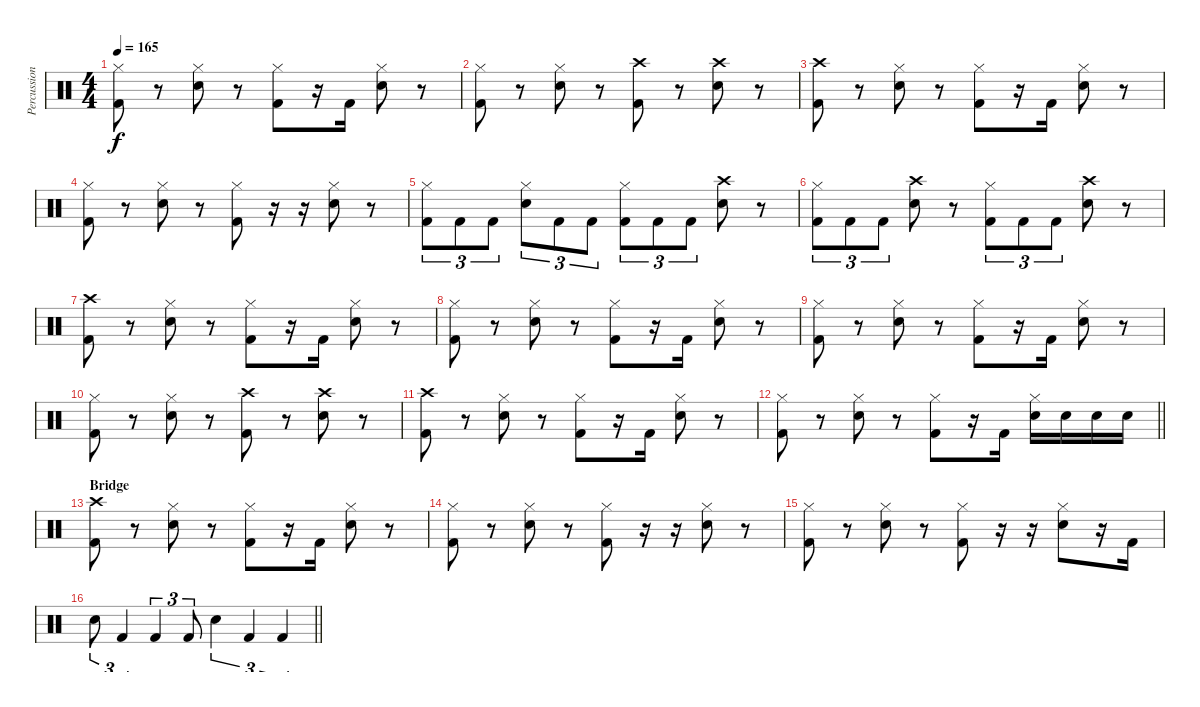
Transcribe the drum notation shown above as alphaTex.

\track ("Percussion" "Percussion") {instrument percussion}
\staff {score}
\articulation defaults
\ts (4 4)
\tempo 165
\clef neutral
\ks c
("Hi-Hat (closed)" "Kick (hit) 2").8{dy f} r.8 ("Hi-Hat (closed)" "Snare (hit) 2").8 r.8 ("Hi-Hat (closed)" "Kick (hit) 2").8 r.16 "Kick (hit) 2".16 ("Hi-Hat (closed)" "Snare (hit) 2").8 r.8 |
("Hi-Hat (closed)" "Kick (hit) 2").8 r.8 ("Hi-Hat (closed)" "Snare (hit) 2").8 r.8 ("Crash high (hit)" "Kick (hit) 2").8 r.8 ("Crash high (hit)" "Snare (hit) 2").8 r.8 |
("Crash high (hit)" "Kick (hit) 2").8 r.8 ("Hi-Hat (closed)" "Snare (hit) 2").8 r.8 ("Hi-Hat (closed)" "Kick (hit) 2").8 r.16 "Kick (hit) 2".16 ("Hi-Hat (closed)" "Snare (hit) 2").8 r.8 |
("Hi-Hat (closed)" "Kick (hit) 2").8 r.8 ("Hi-Hat (closed)" "Snare (hit) 2").8 r.8 ("Hi-Hat (closed)" "Kick (hit) 2").8 r.16 r.16 ("Hi-Hat (closed)" "Snare (hit) 2").8 r.8 |
("Hi-Hat (closed)" "Kick (hit) 2").8{tu (3 2)} "Kick (hit) 2".8{tu (3 2)} "Kick (hit) 2".8{tu (3 2)} ("Hi-Hat (closed)" "Snare (hit) 2").8{tu (3 2)} "Kick (hit) 2".8{tu (3 2)} "Kick (hit) 2".8{tu (3 2)} ("Hi-Hat (closed)" "Kick (hit) 2").8{tu (3 2)} "Kick (hit) 2".8{tu (3 2)} "Kick (hit) 2".8{tu (3 2)} ("Crash high (hit)" "Snare (hit) 2").8 r.8 |
("Hi-Hat (closed)" "Kick (hit) 2").8{tu (3 2)} "Kick (hit) 2".8{tu (3 2)} "Kick (hit) 2".8{tu (3 2)} ("Crash high (hit)" "Snare (hit) 2").8 r.8 ("Hi-Hat (closed)" "Kick (hit) 2").8{tu (3 2)} "Kick (hit) 2".8{tu (3 2)} "Kick (hit) 2".8{tu (3 2)} ("Crash high (hit)" "Snare (hit) 2").8 r.8 |
("Crash high (hit)" "Kick (hit) 2").8 r.8 ("Hi-Hat (closed)" "Snare (hit) 2").8 r.8 ("Hi-Hat (closed)" "Kick (hit) 2").8 r.16 "Kick (hit) 2".16 ("Hi-Hat (closed)" "Snare (hit) 2").8 r.8 |
("Hi-Hat (closed)" "Kick (hit) 2").8 r.8 ("Hi-Hat (closed)" "Snare (hit) 2").8 r.8 ("Hi-Hat (closed)" "Kick (hit) 2").8 r.16 "Kick (hit) 2".16 ("Hi-Hat (closed)" "Snare (hit) 2").8 r.8 |
("Hi-Hat (closed)" "Kick (hit) 2").8 r.8 ("Hi-Hat (closed)" "Snare (hit) 2").8 r.8 ("Hi-Hat (closed)" "Kick (hit) 2").8 r.16 "Kick (hit) 2".16 ("Hi-Hat (closed)" "Snare (hit) 2").8 r.8 |
("Hi-Hat (closed)" "Kick (hit) 2").8 r.8 ("Hi-Hat (closed)" "Snare (hit) 2").8 r.8 ("Crash high (hit)" "Kick (hit) 2").8 r.8 ("Crash high (hit)" "Snare (hit) 2").8 r.8 |
("Crash high (hit)" "Kick (hit) 2").8 r.8 ("Hi-Hat (closed)" "Snare (hit) 2").8 r.8 ("Hi-Hat (closed)" "Kick (hit) 2").8 r.16 "Kick (hit) 2".16 ("Hi-Hat (closed)" "Snare (hit) 2").8 r.8 |
\barLineRight lightlight
("Hi-Hat (closed)" "Kick (hit) 2").8 r.8 ("Hi-Hat (closed)" "Snare (hit) 2").8 r.8 ("Hi-Hat (closed)" "Kick (hit) 2").8 r.16 "Kick (hit) 2".16 ("Hi-Hat (closed)" "Snare (hit) 2").16 "Snare (hit) 2".16 "Snare (hit) 2".16 "Snare (hit) 2".16 |
\section ("" "Bridge")
("Crash high (hit)" "Kick (hit) 2").8 r.8 ("Hi-Hat (closed)" "Snare (hit) 2").8 r.8 ("Hi-Hat (closed)" "Kick (hit) 2").8 r.16 "Kick (hit) 2".16 ("Hi-Hat (closed)" "Snare (hit) 2").8 r.8 |
("Hi-Hat (closed)" "Kick (hit) 2").8 r.8 ("Hi-Hat (closed)" "Snare (hit) 2").8 r.8 ("Hi-Hat (closed)" "Kick (hit) 2").8 r.16 r.16 ("Hi-Hat (closed)" "Snare (hit) 2").8 r.8 |
("Hi-Hat (closed)" "Kick (hit) 2").8 r.8 ("Hi-Hat (closed)" "Snare (hit) 2").8 r.8 ("Hi-Hat (closed)" "Kick (hit) 2").8 r.16 r.16 ("Hi-Hat (closed)" "Snare (hit) 2").8 r.16 "Kick (hit) 2".16 |
\barLineRight lightlight "Snare (hit) 2".8{tu (3 2)} "Kick (hit) 2".4{tu (3 2)} "Kick (hit) 2".4{tu (3 2)} "Kick (hit) 2".8{tu (3 2)} "Snare (hit) 2".4{tu (3 2)} "Kick (hit) 2".4{tu (3 2)} "Kick (hit) 2".4{tu (3 2)}
